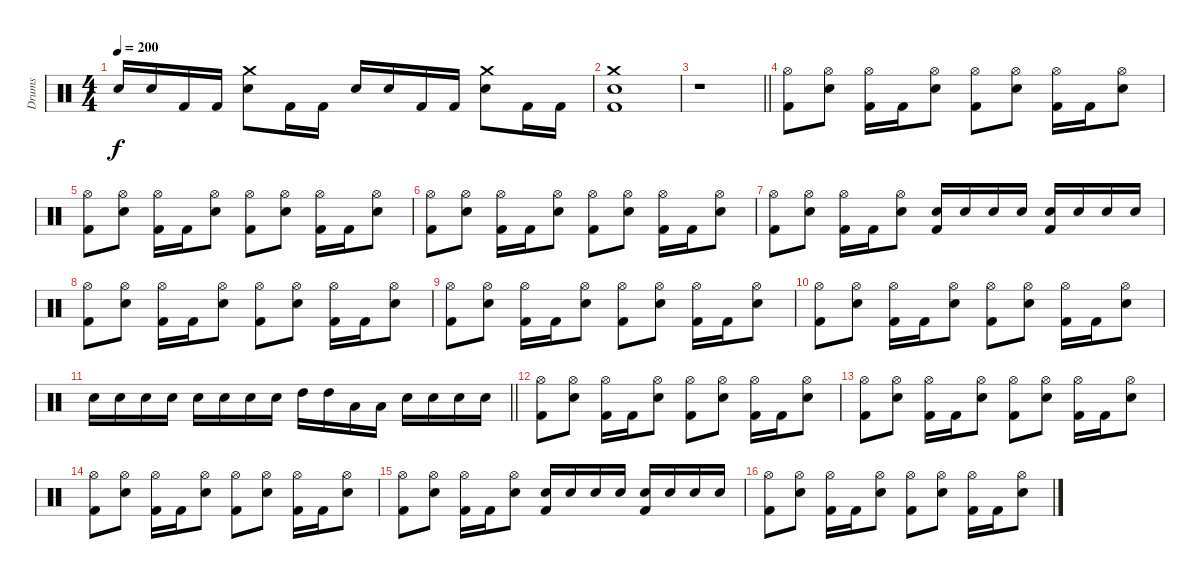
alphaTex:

\track ("Drums" "Drums") {instrument percussion}
\staff {score}
\articulation defaults
\ts (4 4)
\tempo 200
\clef neutral
\ks c "Snare (hit) 2".16{dy f} "Snare (hit) 2".16 "Kick (hit) 2".16 "Kick (hit) 2".16
("Snare (hit) 2" "Crash medium (hit)").8 "Kick (hit) 2".16 "Kick (hit) 2".16 "Snare (hit) 2".16 "Snare (hit) 2".16 "Kick (hit) 2".16 "Kick (hit) 2".16 ("Snare (hit) 2" "Crash medium (hit)").8 "Kick (hit) 2".16 "Kick (hit) 2".16 |
("Kick (hit) 2" "Snare (hit) 2" "Crash medium (hit)").1 |
\barLineRight lightlight
r.1 |
\section ("" "")
("Kick (hit) 2" "Hi-Hat (open)").8 ("Snare (hit) 2" "Hi-Hat (open)").8 ("Kick (hit) 2" "Hi-Hat (open)").16 "Kick (hit) 2".16 ("Snare (hit) 2" "Hi-Hat (open)").8 ("Kick (hit) 2" "Hi-Hat (open)").8 ("Snare (hit) 2" "Hi-Hat (open)").8 ("Kick (hit) 2" "Hi-Hat (open)").16 "Kick (hit) 2".16 ("Snare (hit) 2" "Hi-Hat (open)").8 |
("Kick (hit) 2" "Hi-Hat (open)").8 ("Snare (hit) 2" "Hi-Hat (open)").8 ("Kick (hit) 2" "Hi-Hat (open)").16 "Kick (hit) 2".16 ("Snare (hit) 2" "Hi-Hat (open)").8 ("Kick (hit) 2" "Hi-Hat (open)").8 ("Snare (hit) 2" "Hi-Hat (open)").8 ("Kick (hit) 2" "Hi-Hat (open)").16 "Kick (hit) 2".16 ("Snare (hit) 2" "Hi-Hat (open)").8 |
("Kick (hit) 2" "Hi-Hat (open)").8 ("Snare (hit) 2" "Hi-Hat (open)").8 ("Kick (hit) 2" "Hi-Hat (open)").16 "Kick (hit) 2".16 ("Snare (hit) 2" "Hi-Hat (open)").8 ("Kick (hit) 2" "Hi-Hat (open)").8 ("Snare (hit) 2" "Hi-Hat (open)").8 ("Kick (hit) 2" "Hi-Hat (open)").16 "Kick (hit) 2".16 ("Snare (hit) 2" "Hi-Hat (open)").8 |
("Kick (hit) 2" "Hi-Hat (open)").8 ("Snare (hit) 2" "Hi-Hat (open)").8 ("Kick (hit) 2" "Hi-Hat (open)").16 "Kick (hit) 2".16 ("Snare (hit) 2" "Hi-Hat (open)").8 ("Kick (hit) 2" "Snare (hit) 2").16 "Snare (hit) 2".16 "Snare (hit) 2".16 "Snare (hit) 2".16 ("Kick (hit) 2" "Snare (hit) 2").16 "Snare (hit) 2".16 "Snare (hit) 2".16 "Snare (hit) 2".16 |
("Kick (hit) 2" "Hi-Hat (open)").8 ("Snare (hit) 2" "Hi-Hat (open)").8 ("Kick (hit) 2" "Hi-Hat (open)").16 "Kick (hit) 2".16 ("Snare (hit) 2" "Hi-Hat (open)").8 ("Kick (hit) 2" "Hi-Hat (open)").8 ("Snare (hit) 2" "Hi-Hat (open)").8 ("Kick (hit) 2" "Hi-Hat (open)").16 "Kick (hit) 2".16 ("Snare (hit) 2" "Hi-Hat (open)").8 |
("Kick (hit) 2" "Hi-Hat (open)").8 ("Snare (hit) 2" "Hi-Hat (open)").8 ("Kick (hit) 2" "Hi-Hat (open)").16 "Kick (hit) 2".16 ("Snare (hit) 2" "Hi-Hat (open)").8 ("Kick (hit) 2" "Hi-Hat (open)").8 ("Snare (hit) 2" "Hi-Hat (open)").8 ("Kick (hit) 2" "Hi-Hat (open)").16 "Kick (hit) 2".16 ("Snare (hit) 2" "Hi-Hat (open)").8 |
("Kick (hit) 2" "Hi-Hat (open)").8 ("Snare (hit) 2" "Hi-Hat (open)").8 ("Kick (hit) 2" "Hi-Hat (open)").16 "Kick (hit) 2".16 ("Snare (hit) 2" "Hi-Hat (open)").8 ("Kick (hit) 2" "Hi-Hat (open)").8 ("Snare (hit) 2" "Hi-Hat (open)").8 ("Kick (hit) 2" "Hi-Hat (open)").16 "Kick (hit) 2".16 ("Snare (hit) 2" "Hi-Hat (open)").8 |
\barLineRight lightlight "Snare (hit) 2".16 "Snare (hit) 2".16 "Snare (hit) 2".16 "Snare (hit) 2".16 "Snare (hit) 2".16 "Snare (hit) 2".16 "Snare (hit) 2".16 "Snare (hit) 2".16 "High Tom (hit)".16 "High Tom (hit)".16 "Low Tom (hit)".16 "Low Tom (hit)".16 "Snare (hit) 2".16 "Snare (hit) 2".16 "Snare (hit) 2".16 "Snare (hit) 2".16
|
\section ("" "")
("Kick (hit) 2" "Hi-Hat (open)").8 ("Snare (hit) 2" "Hi-Hat (open)").8 ("Kick (hit) 2" "Hi-Hat (open)").16 "Kick (hit) 2".16 ("Snare (hit) 2" "Hi-Hat (open)").8 ("Kick (hit) 2" "Hi-Hat (open)").8 ("Snare (hit) 2" "Hi-Hat (open)").8 ("Kick (hit) 2" "Hi-Hat (open)").16 "Kick (hit) 2".16 ("Snare (hit) 2" "Hi-Hat (open)").8 |
("Kick (hit) 2" "Hi-Hat (open)").8 ("Snare (hit) 2" "Hi-Hat (open)").8 ("Kick (hit) 2" "Hi-Hat (open)").16 "Kick (hit) 2".16 ("Snare (hit) 2" "Hi-Hat (open)").8 ("Kick (hit) 2" "Hi-Hat (open)").8 ("Snare (hit) 2" "Hi-Hat (open)").8 ("Kick (hit) 2" "Hi-Hat (open)").16 "Kick (hit) 2".16 ("Snare (hit) 2" "Hi-Hat (open)").8 |
("Kick (hit) 2" "Hi-Hat (open)").8 ("Snare (hit) 2" "Hi-Hat (open)").8 ("Kick (hit) 2" "Hi-Hat (open)").16 "Kick (hit) 2".16 ("Snare (hit) 2" "Hi-Hat (open)").8 ("Kick (hit) 2" "Hi-Hat (open)").8 ("Snare (hit) 2" "Hi-Hat (open)").8 ("Kick (hit) 2" "Hi-Hat (open)").16 "Kick (hit) 2".16 ("Snare (hit) 2" "Hi-Hat (open)").8 |
("Kick (hit) 2" "Hi-Hat (open)").8 ("Snare (hit) 2" "Hi-Hat (open)").8 ("Kick (hit) 2" "Hi-Hat (open)").16 "Kick (hit) 2".16 ("Snare (hit) 2" "Hi-Hat (open)").8 ("Kick (hit) 2" "Snare (hit) 2").16 "Snare (hit) 2".16 "Snare (hit) 2".16 "Snare (hit) 2".16 ("Kick (hit) 2" "Snare (hit) 2").16 "Snare (hit) 2".16 "Snare (hit) 2".16 "Snare (hit) 2".16 |
("Kick (hit) 2" "Hi-Hat (open)").8 ("Snare (hit) 2" "Hi-Hat (open)").8 ("Kick (hit) 2" "Hi-Hat (open)").16 "Kick (hit) 2".16 ("Snare (hit) 2" "Hi-Hat (open)").8 ("Kick (hit) 2" "Hi-Hat (open)").8 ("Snare (hit) 2" "Hi-Hat (open)").8 ("Kick (hit) 2" "Hi-Hat (open)").16 "Kick (hit) 2".16 ("Snare (hit) 2" "Hi-Hat (open)").8
